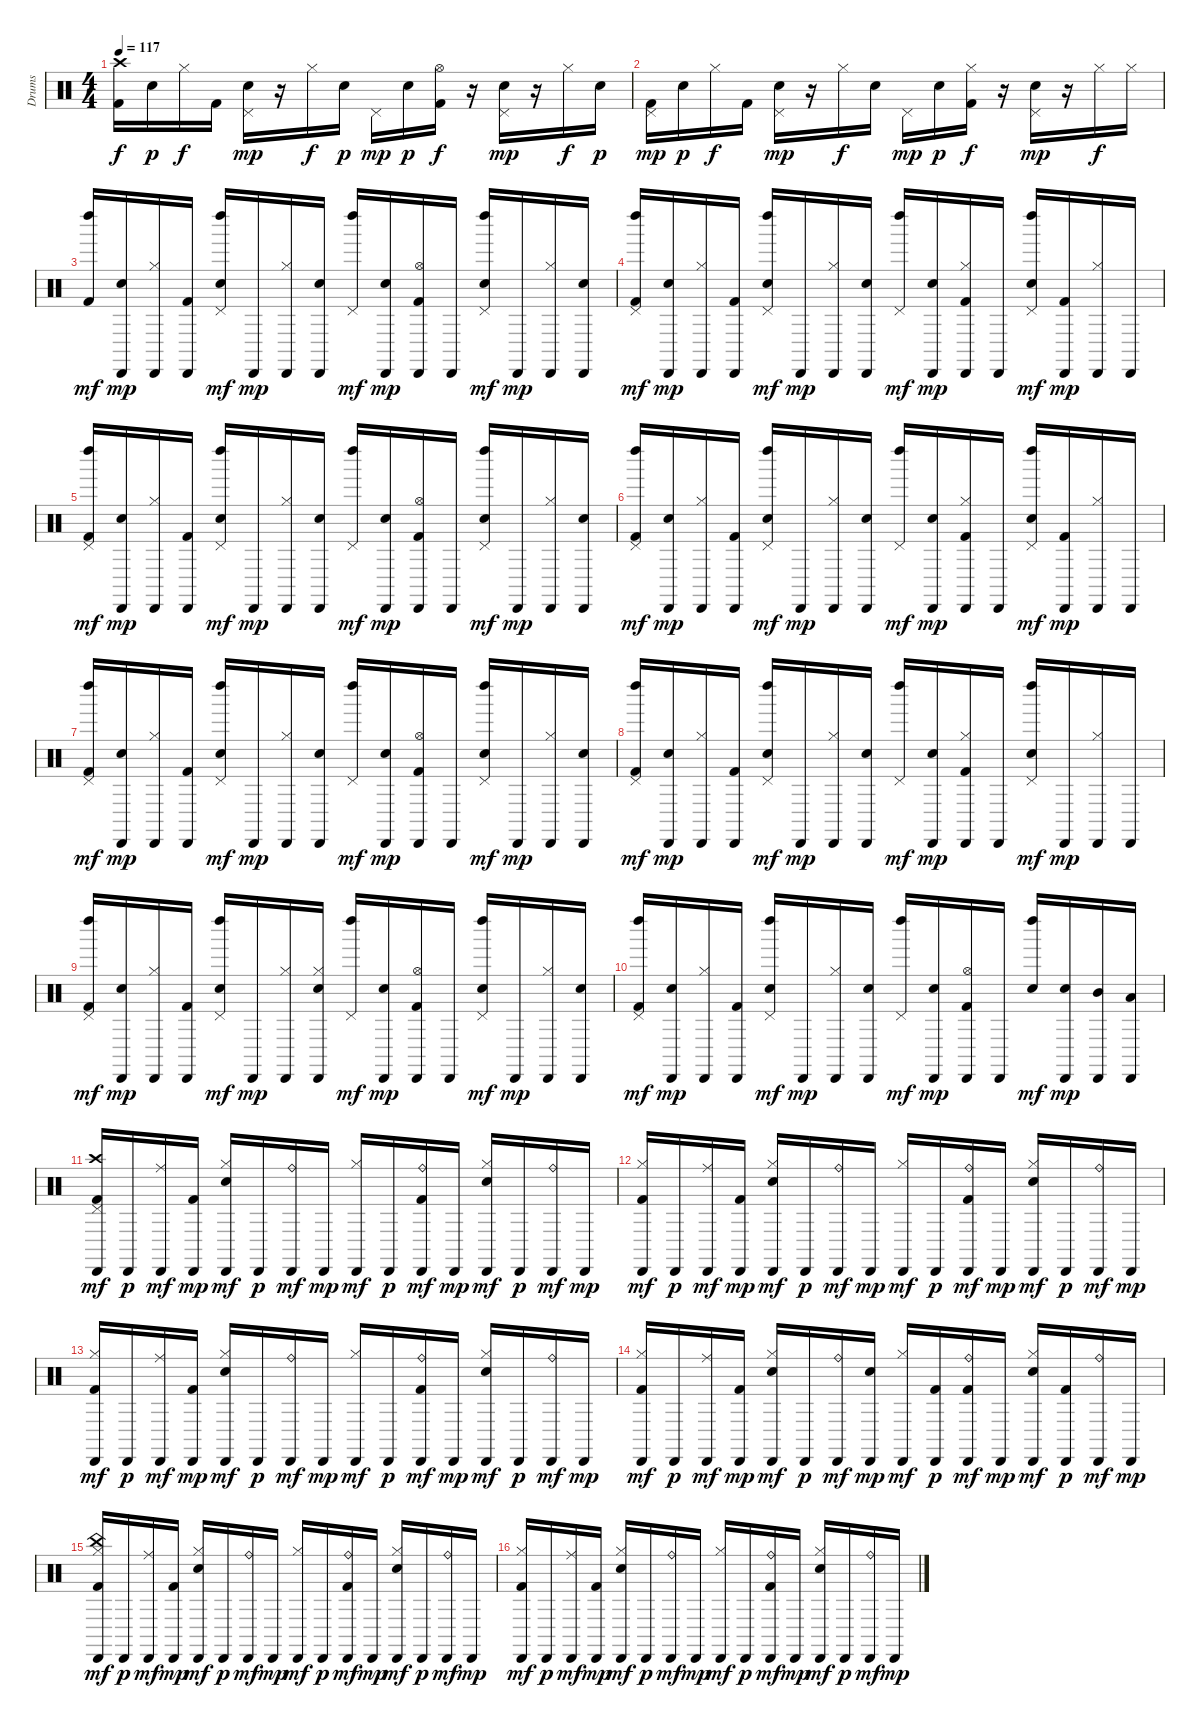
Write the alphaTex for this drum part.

\track ("Drums" "Drums") {instrument percussion}
\staff {score}
\articulation defaults
\ts (4 4)
\tempo 117
\clef neutral
\ks c
("Crash high (hit)" "Kick (hit) 2").16{dy f} "Snare (hit) 2".16{dy p} "Hi-Hat (closed)".16{dy f} "Kick (hit) 2".16 ("Pedal Hi-Hat (hit)" "Snare (hit) 2").16{dy mp} r.16 "Hi-Hat (closed)".16{dy f} "Snare (hit) 2".16{dy p} "Pedal Hi-Hat (hit)".16{dy mp} "Snare (hit) 2".16{dy p} ("Kick (hit) 2" "Hi-Hat (open)").16{dy f} r.16 ("Snare (hit) 2" "Pedal Hi-Hat (hit)").16{dy mp} r.16 "Hi-Hat (closed)".16{dy f} "Snare (hit) 2".16{dy p} |
("Kick (hit) 2" "Pedal Hi-Hat (hit)").16{dy mp} "Snare (hit) 2".16{dy p} "Hi-Hat (closed)".16{dy f} "Kick (hit) 2".16 ("Pedal Hi-Hat (hit)" "Snare (hit) 2").16{dy mp} r.16 "Hi-Hat (closed)".16{dy f} "Snare (hit) 2".16 "Pedal Hi-Hat (hit)".16{dy mp} "Snare (hit) 2".16{dy p} ("Kick (hit) 2" "Hi-Hat (closed)").16{dy f} r.16 ("Snare (hit) 2" "Pedal Hi-Hat (hit)").16{dy mp} r.16 "Hi-Hat (closed)".16{dy f} "Hi-Hat (closed)".16 |
("Kick (hit) 2" "Left Maraca (hit)").16{dy mf} ("Snare (hit) 2" "Cabasa (hit)").16{dy mp} ("Hi-Hat (closed)" "Cabasa (hit)").16 ("Kick (hit) 2" "Cabasa (hit)").16 ("Pedal Hi-Hat (hit)" "Snare (hit) 2" "Left Maraca (hit)").16{dy mf} "Cabasa (hit)".16{dy mp} ("Hi-Hat (closed)" "Cabasa (hit)").16 ("Snare (hit) 2" "Cabasa (hit)").16 ("Pedal Hi-Hat (hit)" "Left Maraca (hit)").16{dy mf} ("Snare (hit) 2" "Cabasa (hit)").16{dy mp} ("Kick (hit) 2" "Hi-Hat (open)" "Cabasa (hit)").16 "Cabasa (hit)".16 ("Pedal Hi-Hat (hit)" "Snare (hit) 2" "Left Maraca (hit)").16{dy mf} "Cabasa (hit)".16{dy mp} ("Hi-Hat (closed)" "Cabasa (hit)").16 ("Snare (hit) 2" "Cabasa (hit)").16 |
("Pedal Hi-Hat (hit)" "Kick (hit) 2" "Left Maraca (hit)").16{dy mf} ("Snare (hit) 2" "Cabasa (hit)").16{dy mp} ("Hi-Hat (closed)" "Cabasa (hit)").16 ("Kick (hit) 2" "Cabasa (hit)").16 ("Snare (hit) 2" "Pedal Hi-Hat (hit)" "Left Maraca (hit)").16{dy mf} "Cabasa (hit)".16{dy mp} ("Hi-Hat (closed)" "Cabasa (hit)").16 ("Snare (hit) 2" "Cabasa (hit)").16 ("Pedal Hi-Hat (hit)" "Left Maraca (hit)").16{dy mf} ("Snare (hit) 2" "Cabasa (hit)").16{dy mp} ("Kick (hit) 2" "Hi-Hat (closed)" "Cabasa (hit)").16 "Cabasa (hit)".16 ("Snare (hit) 2" "Pedal Hi-Hat (hit)" "Left Maraca (hit)").16{dy mf} ("Kick (hit) 2" "Cabasa (hit)").16{dy mp} ("Hi-Hat (closed)" "Cabasa (hit)").16 "Cabasa (hit)".16 |
("Kick (hit) 2" "Pedal Hi-Hat (hit)" "Left Maraca (hit)").16{dy mf} ("Snare (hit) 2" "Cabasa (hit)").16{dy mp} ("Hi-Hat (closed)" "Cabasa (hit)").16 ("Kick (hit) 2" "Cabasa (hit)").16 ("Snare (hit) 2" "Pedal Hi-Hat (hit)" "Left Maraca (hit)").16{dy mf} "Cabasa (hit)".16{dy mp} ("Hi-Hat (closed)" "Cabasa (hit)").16 ("Snare (hit) 2" "Cabasa (hit)").16 ("Pedal Hi-Hat (hit)" "Left Maraca (hit)").16{dy mf} ("Snare (hit) 2" "Cabasa (hit)").16{dy mp} ("Kick (hit) 2" "Hi-Hat (open)" "Cabasa (hit)").16 "Cabasa (hit)".16 ("Snare (hit) 2" "Pedal Hi-Hat (hit)" "Left Maraca (hit)").16{dy mf} "Cabasa (hit)".16{dy mp} ("Hi-Hat (closed)" "Cabasa (hit)").16 ("Snare (hit) 2" "Cabasa (hit)").16 |
("Kick (hit) 2" "Pedal Hi-Hat (hit)" "Left Maraca (hit)").16{dy mf} ("Snare (hit) 2" "Cabasa (hit)").16{dy mp} ("Hi-Hat (closed)" "Cabasa (hit)").16 ("Kick (hit) 2" "Cabasa (hit)").16 ("Snare (hit) 2" "Pedal Hi-Hat (hit)" "Left Maraca (hit)").16{dy mf} "Cabasa (hit)".16{dy mp} ("Hi-Hat (closed)" "Cabasa (hit)").16 ("Snare (hit) 2" "Cabasa (hit)").16 ("Pedal Hi-Hat (hit)" "Left Maraca (hit)").16{dy mf} ("Snare (hit) 2" "Cabasa (hit)").16{dy mp} ("Hi-Hat (closed)" "Kick (hit) 2" "Cabasa (hit)").16 "Cabasa (hit)".16 ("Snare (hit) 2" "Pedal Hi-Hat (hit)" "Left Maraca (hit)").16{dy mf} ("Kick (hit) 2" "Cabasa (hit)").16{dy mp} ("Hi-Hat (closed)" "Cabasa (hit)").16 "Cabasa (hit)".16 |
("Kick (hit) 2" "Pedal Hi-Hat (hit)" "Left Maraca (hit)").16{dy mf} ("Snare (hit) 2" "Cabasa (hit)").16{dy mp} ("Hi-Hat (closed)" "Cabasa (hit)").16 ("Kick (hit) 2" "Cabasa (hit)").16 ("Snare (hit) 2" "Pedal Hi-Hat (hit)" "Left Maraca (hit)").16{dy mf} "Cabasa (hit)".16{dy mp} ("Hi-Hat (closed)" "Cabasa (hit)").16 ("Snare (hit) 2" "Cabasa (hit)").16 ("Pedal Hi-Hat (hit)" "Left Maraca (hit)").16{dy mf} ("Snare (hit) 2" "Cabasa (hit)").16{dy mp} ("Kick (hit) 2" "Hi-Hat (open)" "Cabasa (hit)").16 "Cabasa (hit)".16 ("Pedal Hi-Hat (hit)" "Snare (hit) 2" "Left Maraca (hit)").16{dy mf} "Cabasa (hit)".16{dy mp} ("Hi-Hat (closed)" "Cabasa (hit)").16 ("Snare (hit) 2" "Cabasa (hit)").16 |
("Kick (hit) 2" "Pedal Hi-Hat (hit)" "Left Maraca (hit)").16{dy mf} ("Snare (hit) 2" "Cabasa (hit)").16{dy mp} ("Hi-Hat (closed)" "Cabasa (hit)").16 ("Kick (hit) 2" "Cabasa (hit)").16 ("Snare (hit) 2" "Pedal Hi-Hat (hit)" "Left Maraca (hit)").16{dy mf} "Cabasa (hit)".16{dy mp} ("Hi-Hat (closed)" "Cabasa (hit)").16 ("Snare (hit) 2" "Cabasa (hit)").16 ("Pedal Hi-Hat (hit)" "Left Maraca (hit)").16{dy mf} ("Snare (hit) 2" "Cabasa (hit)").16{dy mp} ("Kick (hit) 2" "Hi-Hat (closed)" "Cabasa (hit)").16 "Cabasa (hit)".16 ("Pedal Hi-Hat (hit)" "Snare (hit) 2" "Left Maraca (hit)").16{dy mf} "Cabasa (hit)".16{dy mp} ("Hi-Hat (closed)" "Cabasa (hit)").16 "Cabasa (hit)".16 |
("Kick (hit) 2" "Pedal Hi-Hat (hit)" "Left Maraca (hit)").16{dy mf} ("Snare (hit) 2" "Cabasa (hit)").16{dy mp} ("Hi-Hat (closed)" "Cabasa (hit)").16 ("Kick (hit) 2" "Cabasa (hit)").16 ("Snare (hit) 2" "Pedal Hi-Hat (hit)" "Left Maraca (hit)").16{dy mf} "Cabasa (hit)".16{dy mp} ("Hi-Hat (closed)" "Cabasa (hit)").16 ("Snare (hit) 2" "Hi-Hat (closed)" "Cabasa (hit)").16 ("Pedal Hi-Hat (hit)" "Left Maraca (hit)").16{dy mf} ("Snare (hit) 2" "Cabasa (hit)").16{dy mp} ("Kick (hit) 2" "Hi-Hat (open)" "Cabasa (hit)").16 "Cabasa (hit)".16 ("Pedal Hi-Hat (hit)" "Snare (hit) 2" "Left Maraca (hit)").16{dy mf} "Cabasa (hit)".16{dy mp} ("Hi-Hat (closed)" "Cabasa (hit)").16 ("Snare (hit) 2" "Cabasa (hit)").16 |
("Kick (hit) 2" "Pedal Hi-Hat (hit)" "Left Maraca (hit)").16{dy mf} ("Snare (hit) 2" "Cabasa (hit)").16{dy mp} ("Hi-Hat (closed)" "Cabasa (hit)").16 ("Kick (hit) 2" "Cabasa (hit)").16 ("Snare (hit) 2" "Pedal Hi-Hat (hit)" "Left Maraca (hit)").16{dy mf} "Cabasa (hit)".16{dy mp} ("Hi-Hat (closed)" "Cabasa (hit)").16 ("Snare (hit) 2" "Cabasa (hit)").16 ("Pedal Hi-Hat (hit)" "Left Maraca (hit)").16{dy mf} ("Snare (hit) 2" "Cabasa (hit)").16{dy mp} ("Hi-Hat (open)" "Kick (hit) 2" "Cabasa (hit)").16 "Cabasa (hit)".16 ("Snare (hit) 2" "Left Maraca (hit)").16{dy mf} ("Snare (hit) 2" "Cabasa (hit)").16{dy mp} ("Mid Tom (hit)" "Cabasa (hit)").16 ("Low Tom (hit)" "Cabasa (hit)").16 |
("Crash high (hit)" "Kick (hit) 2" "Pedal Hi-Hat (hit)" "Cabasa (hit)").16{dy mf} "Cabasa (hit)".16{dy p} ("Ride (middle)" "Cabasa (hit)").16{dy mf} ("Kick (hit) 2" "Cabasa (hit)").16{dy mp} ("Snare (hit) 2" "Hi-Hat (closed)" "Cabasa (hit)").16{dy mf} "Cabasa (hit)".16{dy p} ("Ride (bell)" "Cabasa (hit)").16{dy mf} "Cabasa (hit)".16{dy mp} ("Hi-Hat (closed)" "Cabasa (hit)").16{dy mf} "Cabasa (hit)".16{dy p} ("Ride (bell)" "Kick (hit) 2" "Cabasa (hit)").16{dy mf} "Cabasa (hit)".16{dy mp} ("Hi-Hat (closed)" "Snare (hit) 2" "Cabasa (hit)").16{dy mf} "Cabasa (hit)".16{dy p} ("Ride (bell)" "Cabasa (hit)").16{dy mf} "Cabasa (hit)".16{dy mp} |
("Kick (hit) 2" "Hi-Hat (closed)" "Cabasa (hit)").16{dy mf} "Cabasa (hit)".16{dy p} ("Ride (middle)" "Cabasa (hit)").16{dy mf} ("Kick (hit) 2" "Cabasa (hit)").16{dy mp} ("Hi-Hat (closed)" "Snare (hit) 2" "Cabasa (hit)").16{dy mf} "Cabasa (hit)".16{dy p} ("Ride (bell)" "Cabasa (hit)").16{dy mf} "Cabasa (hit)".16{dy mp} ("Hi-Hat (closed)" "Cabasa (hit)").16{dy mf} "Cabasa (hit)".16{dy p} ("Kick (hit) 2" "Ride (bell)" "Cabasa (hit)").16{dy mf} "Cabasa (hit)".16{dy mp} ("Snare (hit) 2" "Hi-Hat (closed)" "Cabasa (hit)").16{dy mf} "Cabasa (hit)".16{dy p} ("Ride (bell)" "Cabasa (hit)").16{dy mf} "Cabasa (hit)".16{dy mp} |
("Hi-Hat (closed)" "Kick (hit) 2" "Cabasa (hit)").16{dy mf} "Cabasa (hit)".16{dy p} ("Ride (middle)" "Cabasa (hit)").16{dy mf} ("Kick (hit) 2" "Cabasa (hit)").16{dy mp} ("Snare (hit) 2" "Hi-Hat (closed)" "Cabasa (hit)").16{dy mf} "Cabasa (hit)".16{dy p} ("Ride (bell)" "Cabasa (hit)").16{dy mf} "Cabasa (hit)".16{dy mp} ("Hi-Hat (closed)" "Cabasa (hit)").16{dy mf} "Cabasa (hit)".16{dy p} ("Ride (bell)" "Kick (hit) 2" "Cabasa (hit)").16{dy mf} "Cabasa (hit)".16{dy mp} ("Snare (hit) 2" "Hi-Hat (closed)" "Cabasa (hit)").16{dy mf} "Cabasa (hit)".16{dy p} ("Ride (bell)" "Cabasa (hit)").16{dy mf} "Cabasa (hit)".16{dy mp} |
("Hi-Hat (closed)" "Kick (hit) 2" "Cabasa (hit)").16{dy mf} "Cabasa (hit)".16{dy p} ("Ride (middle)" "Cabasa (hit)").16{dy mf} ("Kick (hit) 2" "Cabasa (hit)").16{dy mp} ("Hi-Hat (closed)" "Snare (hit) 2" "Cabasa (hit)").16{dy mf} "Cabasa (hit)".16{dy p} ("Ride (bell)" "Cabasa (hit)").16{dy mf} ("Snare (hit) 2" "Cabasa (hit)").16{dy mp} ("Hi-Hat (closed)" "Cabasa (hit)").16{dy mf} ("Kick (hit) 2" "Cabasa (hit)").16{dy p} ("Ride (bell)" "Kick (hit) 2" "Cabasa (hit)").16{dy mf} "Cabasa (hit)".16{dy mp} ("Hi-Hat (closed)" "Snare (hit) 2" "Cabasa (hit)").16{dy mf} ("Kick (hit) 2" "Cabasa (hit)").16{dy p} ("Ride (bell)" "Cabasa (hit)").16{dy mf} "Cabasa (hit)".16{dy mp} |
("Hi-Hat (closed)" "Kick (hit) 2" "China (hit)" "Cabasa (hit)").16{dy mf} "Cabasa (hit)".16{dy p} ("Ride (middle)" "Cabasa (hit)").16{dy mf} ("Kick (hit) 2" "Cabasa (hit)").16{dy mp} ("Snare (hit) 2" "Hi-Hat (closed)" "Cabasa (hit)").16{dy mf} "Cabasa (hit)".16{dy p} ("Ride (bell)" "Cabasa (hit)").16{dy mf} "Cabasa (hit)".16{dy mp} ("Hi-Hat (closed)" "Cabasa (hit)").16{dy mf} "Cabasa (hit)".16{dy p} ("Kick (hit) 2" "Ride (bell)" "Cabasa (hit)").16{dy mf} "Cabasa (hit)".16{dy mp} ("Hi-Hat (closed)" "Snare (hit) 2" "Cabasa (hit)").16{dy mf} "Cabasa (hit)".16{dy p} ("Ride (bell)" "Cabasa (hit)").16{dy mf} "Cabasa (hit)".16{dy mp} |
("Hi-Hat (closed)" "Kick (hit) 2" "Cabasa (hit)").16{dy mf} "Cabasa (hit)".16{dy p} ("Ride (middle)" "Cabasa (hit)").16{dy mf} ("Kick (hit) 2" "Cabasa (hit)").16{dy mp} ("Hi-Hat (closed)" "Snare (hit) 2" "Cabasa (hit)").16{dy mf} "Cabasa (hit)".16{dy p} ("Ride (bell)" "Cabasa (hit)").16{dy mf} "Cabasa (hit)".16{dy mp} ("Hi-Hat (closed)" "Cabasa (hit)").16{dy mf} "Cabasa (hit)".16{dy p} ("Kick (hit) 2" "Ride (bell)" "Cabasa (hit)").16{dy mf} "Cabasa (hit)".16{dy mp} ("Snare (hit) 2" "Hi-Hat (closed)" "Cabasa (hit)").16{dy mf} "Cabasa (hit)".16{dy p} ("Ride (bell)" "Cabasa (hit)").16{dy mf} "Cabasa (hit)".16{dy mp}
